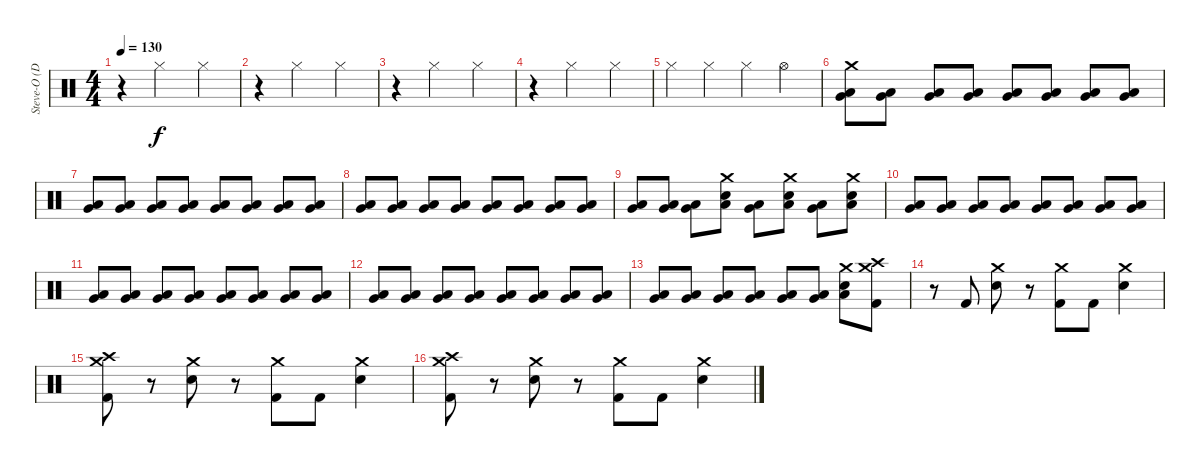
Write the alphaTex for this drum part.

\track ("Steve-O (Drums)" "Steve-O (D") {instrument percussion}
\staff {score}
\articulation defaults
\ts (4 4)
\tempo 130
\clef neutral
\ks c
r.4{dy f} "Hi-Hat (closed)".2 "Hi-Hat (closed)".4 |
r.4 "Hi-Hat (closed)".2 "Hi-Hat (closed)".4 |
r.4 "Hi-Hat (closed)".2 "Hi-Hat (closed)".4 |
r.4 "Hi-Hat (closed)".2 "Hi-Hat (closed)".4 |
"Hi-Hat (closed)".4 "Hi-Hat (closed)".4 "Hi-Hat (closed)".4 "Hi-Hat (open)".4 |
("Crash medium (hit)" "Very Low Tom (hit)" "Low Floor Tom (hit)").8{volume 9} ("Very Low Tom (hit)" "Low Floor Tom (hit)").8 ("Very Low Tom (hit)" "Low Floor Tom (hit)").8 ("Very Low Tom (hit)" "Low Floor Tom (hit)").8 ("Very Low Tom (hit)" "Low Floor Tom (hit)").8 ("Very Low Tom (hit)" "Low Floor Tom (hit)").8 ("Very Low Tom (hit)" "Low Floor Tom (hit)").8 ("Very Low Tom (hit)" "Low Floor Tom (hit)").8 |
("Very Low Tom (hit)" "Low Floor Tom (hit)").8 ("Very Low Tom (hit)" "Low Floor Tom (hit)").8 ("Very Low Tom (hit)" "Low Floor Tom (hit)").8 ("Very Low Tom (hit)" "Low Floor Tom (hit)").8 ("Very Low Tom (hit)" "Low Floor Tom (hit)").8 ("Very Low Tom (hit)" "Low Floor Tom (hit)").8 ("Very Low Tom (hit)" "Low Floor Tom (hit)").8 ("Very Low Tom (hit)" "Low Floor Tom (hit)").8 |
("Very Low Tom (hit)" "Low Floor Tom (hit)").8 ("Very Low Tom (hit)" "Low Floor Tom (hit)").8 ("Very Low Tom (hit)" "Low Floor Tom (hit)").8 ("Very Low Tom (hit)" "Low Floor Tom (hit)").8 ("Very Low Tom (hit)" "Low Floor Tom (hit)").8 ("Very Low Tom (hit)" "Low Floor Tom (hit)").8 ("Very Low Tom (hit)" "Low Floor Tom (hit)").8 ("Very Low Tom (hit)" "Low Floor Tom (hit)").8 |
("Very Low Tom (hit)" "Low Floor Tom (hit)").8 ("Very Low Tom (hit)" "Low Floor Tom (hit)").8 ("Very Low Tom (hit)" "Low Floor Tom (hit)").8 ("Crash medium (hit)" "Electric Snare (hit)" "Low Floor Tom (hit)").8 ("Very Low Tom (hit)" "Low Floor Tom (hit)").8 ("Crash medium (hit)" "Electric Snare (hit)" "Low Floor Tom (hit)").8 ("Very Low Tom (hit)" "Low Floor Tom (hit)").8 ("Crash medium (hit)" "Electric Snare (hit)" "Low Floor Tom (hit)").8 |
("Very Low Tom (hit)" "Low Floor Tom (hit)").8 ("Very Low Tom (hit)" "Low Floor Tom (hit)").8 ("Very Low Tom (hit)" "Low Floor Tom (hit)").8 ("Very Low Tom (hit)" "Low Floor Tom (hit)").8 ("Very Low Tom (hit)" "Low Floor Tom (hit)").8 ("Very Low Tom (hit)" "Low Floor Tom (hit)").8 ("Very Low Tom (hit)" "Low Floor Tom (hit)").8 ("Very Low Tom (hit)" "Low Floor Tom (hit)").8 |
("Very Low Tom (hit)" "Low Floor Tom (hit)").8 ("Very Low Tom (hit)" "Low Floor Tom (hit)").8 ("Very Low Tom (hit)" "Low Floor Tom (hit)").8 ("Very Low Tom (hit)" "Low Floor Tom (hit)").8 ("Very Low Tom (hit)" "Low Floor Tom (hit)").8 ("Very Low Tom (hit)" "Low Floor Tom (hit)").8 ("Very Low Tom (hit)" "Low Floor Tom (hit)").8 ("Very Low Tom (hit)" "Low Floor Tom (hit)").8 |
("Very Low Tom (hit)" "Low Floor Tom (hit)").8 ("Very Low Tom (hit)" "Low Floor Tom (hit)").8 ("Very Low Tom (hit)" "Low Floor Tom (hit)").8 ("Very Low Tom (hit)" "Low Floor Tom (hit)").8 ("Very Low Tom (hit)" "Low Floor Tom (hit)").8 ("Very Low Tom (hit)" "Low Floor Tom (hit)").8 ("Very Low Tom (hit)" "Low Floor Tom (hit)").8 ("Very Low Tom (hit)" "Low Floor Tom (hit)").8 |
("Very Low Tom (hit)" "Low Floor Tom (hit)").8 ("Very Low Tom (hit)" "Low Floor Tom (hit)").8 ("Very Low Tom (hit)" "Low Floor Tom (hit)").8 ("Very Low Tom (hit)" "Low Floor Tom (hit)").8 ("Very Low Tom (hit)" "Low Floor Tom (hit)").8 ("Very Low Tom (hit)" "Low Floor Tom (hit)").8 ("Crash medium (hit)" "Electric Snare (hit)" "Low Floor Tom (hit)").8 ("Crash high (hit)" "Crash medium (hit)" "Kick (hit) 2").8 |
r.8 "Kick (hit) 2".8 ("Crash medium (hit)" "Electric Snare (hit)").8 r.8 ("Crash medium (hit)" "Kick (hit) 2").8 "Kick (hit) 2".8 ("Crash medium (hit)" "Electric Snare (hit)").4 |
("Crash high (hit)" "Crash medium (hit)" "Kick (hit) 2").8 r.8 ("Crash medium (hit)" "Electric Snare (hit)").8 r.8 ("Crash medium (hit)" "Kick (hit) 2").8 "Kick (hit) 2".8 ("Crash medium (hit)" "Electric Snare (hit)").4 |
("Crash high (hit)" "Crash medium (hit)" "Kick (hit) 2").8 r.8 ("Crash medium (hit)" "Electric Snare (hit)").8 r.8 ("Crash medium (hit)" "Kick (hit) 2").8 "Kick (hit) 2".8 ("Crash medium (hit)" "Electric Snare (hit)").4
